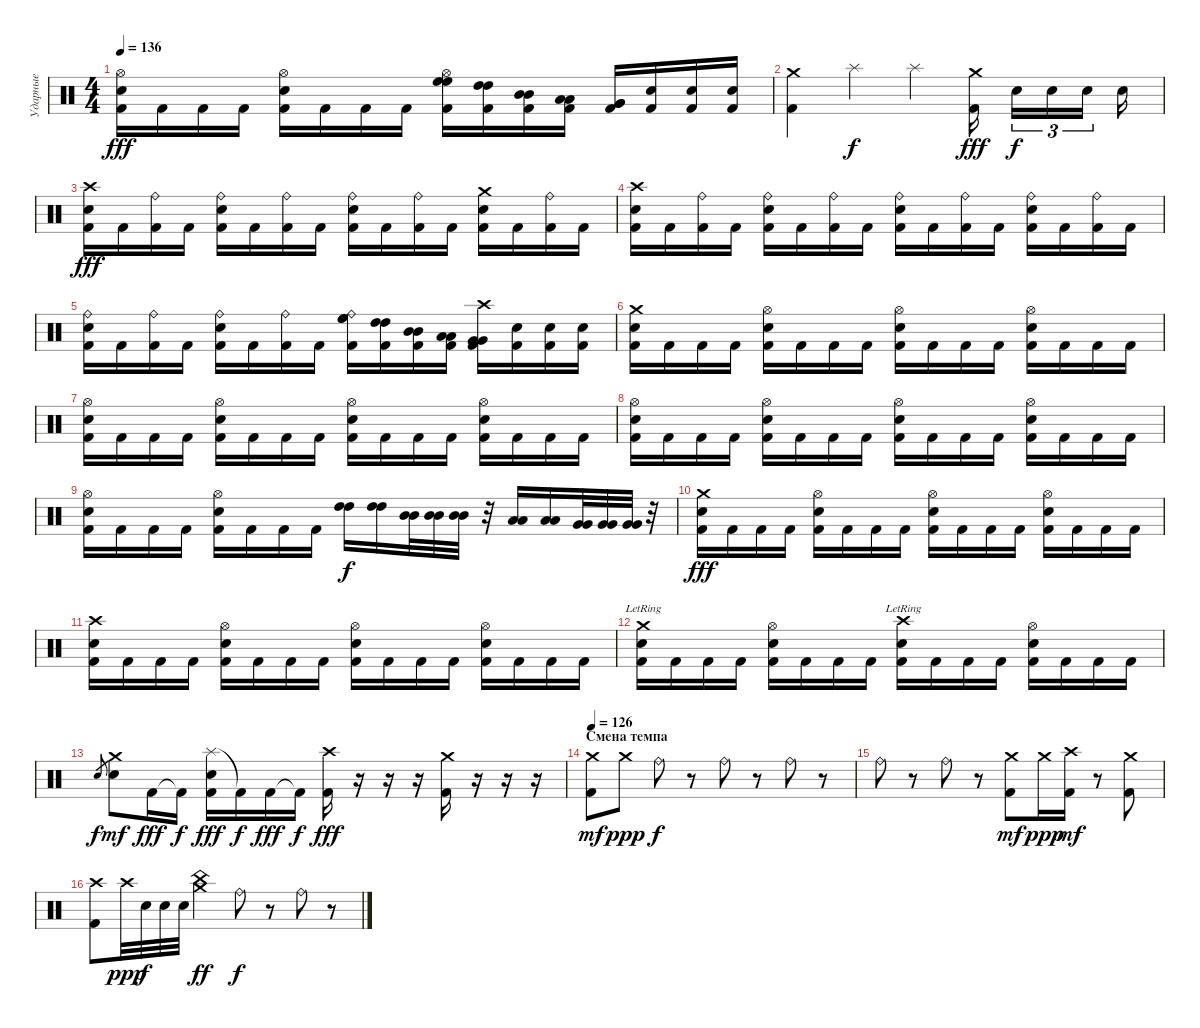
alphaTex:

\track ("Ударные" "Ударные") {instrument percussion}
\staff {score}
\articulation defaults
\ts (4 4)
\tempo 136
\clef neutral
\ks c
("Hi-Hat (open)" "Electric Snare (hit)" "Kick (hit) 2").16{dy fff} "Kick (hit) 2".16 "Kick (hit) 2".16 "Kick (hit) 2".16 ("Hi-Hat (open)" "Electric Snare (hit)" "Kick (hit) 2").16 "Kick (hit) 2".16 "Kick (hit) 2".16 "Kick (hit) 2".16 ("Hi-Hat (open)" "High Floor Tom (hit)" "High Floor Tom (hit)" "Kick (hit) 2").16 ("High Tom (hit)" "High Tom (hit)" "Kick (hit) 2").16 ("Mid Tom (hit)" "Mid Tom (hit)" "Kick (hit) 2").16 ("Low Tom (hit)" "Low Tom (hit)" "Kick (hit) 2").16 ("Very Low Tom (hit)" "Very Low Tom (hit)" "Kick (hit) 2").16 ("Electric Snare (hit)" "Kick (hit) 2").16 ("Electric Snare (hit)" "Kick (hit) 2").16 ("Electric Snare (hit)" "Kick (hit) 2").16 |
("Crash medium (hit)" "Kick (hit) 2").4 "Splash (hit)".4{dy f} "Splash (hit)".4 ("Crash medium (hit)" "Kick (hit) 2").16{dy fff} "Electric Snare (hit)".16{tu (3 2) dy f} "Electric Snare (hit)".16{tu (3 2)} "Electric Snare (hit)".16{tu (3 2)} "Electric Snare (hit)".16 |
("Crash high (hit)" "Electric Snare (hit)" "Kick (hit) 2").16{dy fff} "Kick (hit) 2".16 ("Ride (bell)" "Kick (hit) 2").16 "Kick (hit) 2".16 ("Ride (bell)" "Electric Snare (hit)" "Kick (hit) 2").16 "Kick (hit) 2".16 ("Ride (bell)" "Kick (hit) 2").16 "Kick (hit) 2".16 ("Ride (bell)" "Electric Snare (hit)" "Kick (hit) 2").16 "Kick (hit) 2".16 ("Ride (bell)" "Kick (hit) 2").16 "Kick (hit) 2".16 ("Crash medium (hit)" "Electric Snare (hit)" "Kick (hit) 2").16 "Kick (hit) 2".16 ("Ride (bell)" "Kick (hit) 2").16 "Kick (hit) 2".16 |
("Crash high (hit)" "Electric Snare (hit)" "Kick (hit) 2").16 "Kick (hit) 2".16 ("Ride (bell)" "Kick (hit) 2").16 "Kick (hit) 2".16 ("Ride (bell)" "Electric Snare (hit)" "Kick (hit) 2").16 "Kick (hit) 2".16 ("Ride (bell)" "Kick (hit) 2").16 "Kick (hit) 2".16 ("Ride (bell)" "Electric Snare (hit)" "Kick (hit) 2").16 "Kick (hit) 2".16 ("Ride (bell)" "Kick (hit) 2").16 "Kick (hit) 2".16 ("Ride (bell)" "Electric Snare (hit)" "Kick (hit) 2").16 "Kick (hit) 2".16 ("Ride (bell)" "Kick (hit) 2").16 "Kick (hit) 2".16 |
("Ride (bell)" "Electric Snare (hit)" "Kick (hit) 2").16 "Kick (hit) 2".16 ("Ride (bell)" "Kick (hit) 2").16 "Kick (hit) 2".16 ("Ride (bell)" "Electric Snare (hit)" "Kick (hit) 2").16 "Kick (hit) 2".16 ("Ride (bell)" "Kick (hit) 2").16 "Kick (hit) 2".16 ("Ride (bell)" "High Floor Tom (hit)" "High Floor Tom (hit)" "Kick (hit) 2").16 ("High Tom (hit)" "High Tom (hit)" "Kick (hit) 2").16 ("Mid Tom (hit)" "Mid Tom (hit)" "Kick (hit) 2").16 ("Low Tom (hit)" "Low Tom (hit)" "Kick (hit) 2").16 ("Crash high (hit)" "Very Low Tom (hit)" "Very Low Tom (hit)" "Kick (hit) 2").16 ("Electric Snare (hit)" "Kick (hit) 2").16 ("Electric Snare (hit)" "Kick (hit) 2").16 ("Electric Snare (hit)" "Kick (hit) 2").16 |
("Crash medium (hit)" "Electric Snare (hit)" "Kick (hit) 2").16 "Kick (hit) 2".16 "Kick (hit) 2".16 "Kick (hit) 2".16 ("Hi-Hat (open)" "Electric Snare (hit)" "Kick (hit) 2").16 "Kick (hit) 2".16 "Kick (hit) 2".16 "Kick (hit) 2".16 ("Hi-Hat (open)" "Electric Snare (hit)" "Kick (hit) 2").16 "Kick (hit) 2".16 "Kick (hit) 2".16 "Kick (hit) 2".16 ("Hi-Hat (open)" "Electric Snare (hit)" "Kick (hit) 2").16 "Kick (hit) 2".16 "Kick (hit) 2".16 "Kick (hit) 2".16 |
("Hi-Hat (open)" "Electric Snare (hit)" "Kick (hit) 2").16 "Kick (hit) 2".16 "Kick (hit) 2".16 "Kick (hit) 2".16 ("Hi-Hat (open)" "Electric Snare (hit)" "Kick (hit) 2").16 "Kick (hit) 2".16 "Kick (hit) 2".16 "Kick (hit) 2".16 ("Hi-Hat (open)" "Electric Snare (hit)" "Kick (hit) 2").16 "Kick (hit) 2".16 "Kick (hit) 2".16 "Kick (hit) 2".16 ("Hi-Hat (open)" "Electric Snare (hit)" "Kick (hit) 2").16 "Kick (hit) 2".16 "Kick (hit) 2".16 "Kick (hit) 2".16 |
("Hi-Hat (open)" "Electric Snare (hit)" "Kick (hit) 2").16 "Kick (hit) 2".16 "Kick (hit) 2".16 "Kick (hit) 2".16 ("Hi-Hat (open)" "Electric Snare (hit)" "Kick (hit) 2").16 "Kick (hit) 2".16 "Kick (hit) 2".16 "Kick (hit) 2".16 ("Hi-Hat (open)" "Electric Snare (hit)" "Kick (hit) 2").16 "Kick (hit) 2".16 "Kick (hit) 2".16 "Kick (hit) 2".16 ("Hi-Hat (open)" "Electric Snare (hit)" "Kick (hit) 2").16 "Kick (hit) 2".16 "Kick (hit) 2".16 "Kick (hit) 2".16 |
("Hi-Hat (open)" "Electric Snare (hit)" "Kick (hit) 2").16 "Kick (hit) 2".16 "Kick (hit) 2".16 "Kick (hit) 2".16 ("Hi-Hat (open)" "Electric Snare (hit)" "Kick (hit) 2").16 "Kick (hit) 2".16 "Kick (hit) 2".16 "Kick (hit) 2".16 ("High Tom (hit)" "High Tom (hit)").16{dy f balance 10} ("High Tom (hit)" "High Tom (hit)").16 ("Mid Tom (hit)" "Mid Tom (hit)").32{balance 8} ("Mid Tom (hit)" "Mid Tom (hit)").32 ("Mid Tom (hit)" "Mid Tom (hit)").32 r.32 ("Low Tom (hit)" "Low Tom (hit)").16{balance 7} ("Low Tom (hit)" "Low Tom (hit)").16 ("Very Low Tom (hit)" "Very Low Tom (hit)").32{balance 6} ("Very Low Tom (hit)" "Very Low Tom (hit)").32 ("Very Low Tom (hit)" "Very Low Tom (hit)").32 r.32{balance 8} |
("Crash medium (hit)" "Electric Snare (hit)" "Kick (hit) 2").16{dy fff} "Kick (hit) 2".16 "Kick (hit) 2".16 "Kick (hit) 2".16 ("Hi-Hat (open)" "Electric Snare (hit)" "Kick (hit) 2").16 "Kick (hit) 2".16 "Kick (hit) 2".16 "Kick (hit) 2".16 ("Hi-Hat (open)" "Electric Snare (hit)" "Kick (hit) 2").16 "Kick (hit) 2".16 "Kick (hit) 2".16 "Kick (hit) 2".16 ("Hi-Hat (open)" "Electric Snare (hit)" "Kick (hit) 2").16 "Kick (hit) 2".16 "Kick (hit) 2".16 "Kick (hit) 2".16 |
("Crash high (hit)" "Electric Snare (hit)" "Kick (hit) 2").16 "Kick (hit) 2".16 "Kick (hit) 2".16 "Kick (hit) 2".16 ("Hi-Hat (open)" "Electric Snare (hit)" "Kick (hit) 2").16 "Kick (hit) 2".16 "Kick (hit) 2".16 "Kick (hit) 2".16 ("Hi-Hat (open)" "Electric Snare (hit)" "Kick (hit) 2").16 "Kick (hit) 2".16 "Kick (hit) 2".16 "Kick (hit) 2".16 ("Hi-Hat (open)" "Electric Snare (hit)" "Kick (hit) 2").16 "Kick (hit) 2".16 "Kick (hit) 2".16 "Kick (hit) 2".16 |
("Crash medium (hit)"{lr} "Electric Snare (hit)" "Kick (hit) 2").16 "Kick (hit) 2".16 "Kick (hit) 2".16 "Kick (hit) 2".16 ("Hi-Hat (open)" "Electric Snare (hit)" "Kick (hit) 2").16 "Kick (hit) 2".16 "Kick (hit) 2".16 "Kick (hit) 2".16 ("Crash high (hit)"{lr} "Electric Snare (hit)" "Kick (hit) 2").16 "Kick (hit) 2".16 "Kick (hit) 2".16 "Kick (hit) 2".16 ("Hi-Hat (open)" "Electric Snare (hit)" "Kick (hit) 2").16 "Kick (hit) 2".16 "Kick (hit) 2".16 "Kick (hit) 2".16 |
"Electric Snare (hit)".8{gr dy f} ("Crash medium (hit)" "Electric Snare (hit)").8{dy mf} "Kick (hit) 2".16{dy fff} "Kick (hit) 2"{t}.16{dy f} ("Splash (hit)" "Electric Snare (hit)" "Kick (hit) 2").16{dy fff} "Kick (hit) 2"{t}.16{dy f} "Kick (hit) 2".16{dy fff} "Kick (hit) 2"{t}.16{dy f} ("Crash high (hit)" "Kick (hit) 2").16{dy fff} r.16 r.16 r.16 ("Crash medium (hit)" "Kick (hit) 2").16 r.16 r.16 r.16 |
\section ("" "Смена темпа")
\tempo 126
("Kick (hit) 2" "Crash medium (hit)").8{dy mf} "Crash medium (hit)".8{dy ppp} "Ride (bell)".8{dy f} r.8 "Ride (bell)".8 r.8 "Ride (bell)".8 r.8 |
"Ride (bell)".8 r.8 "Ride (bell)".8 r.8 ("Kick (hit) 2" "Crash medium (hit)").8{dy mf} "Crash medium (hit)".16{dy ppp} ("Kick (hit) 2" "Crash high (hit)").16{dy mf} r.8 ("Kick (hit) 2" "Crash medium (hit)").8 |
("Kick (hit) 2" "Crash high (hit)").8 "Crash high (hit)".32{dy ppp} "Electric Snare (hit)".32{dy f} "Electric Snare (hit)".32 "Electric Snare (hit)".32 ("China (hit)" "Crash medium (hit)").4{dy ff} "Ride (bell)".8{dy f} r.8 "Ride (bell)".8 r.8
